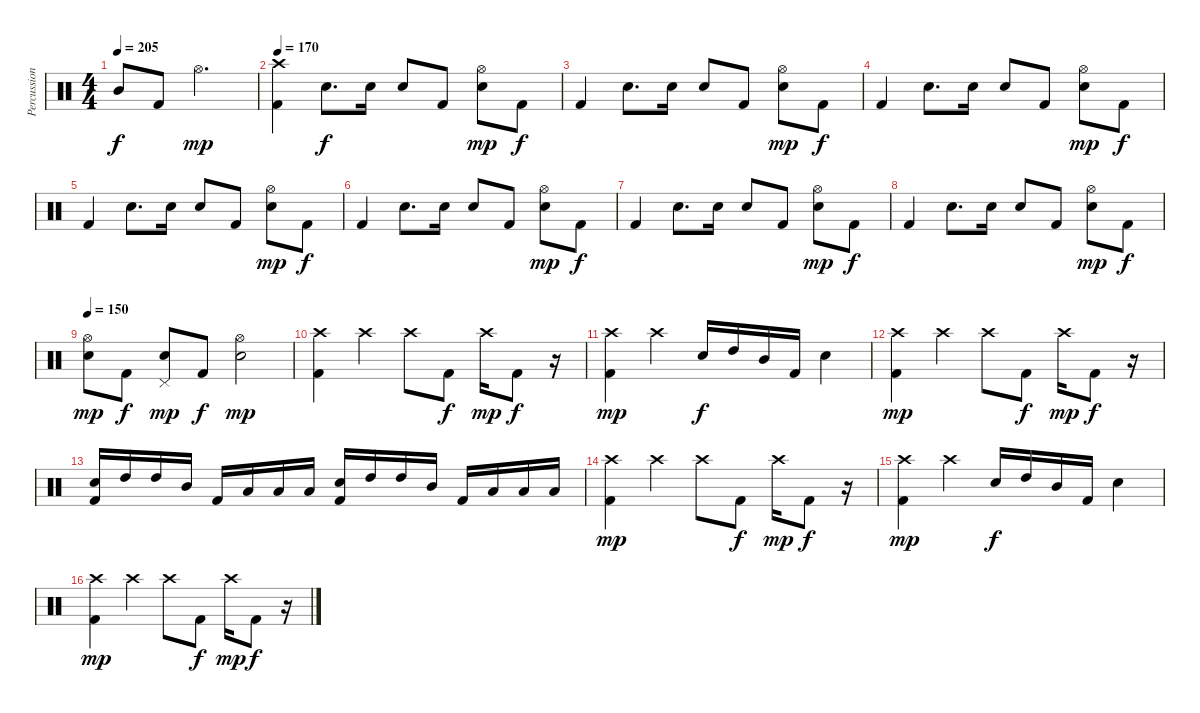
\track ("Percussion" "Percussion") {instrument percussion}
\staff {score}
\articulation defaults
\ts (4 4)
\tempo 205
\clef neutral
\ks c "Mid Tom (hit)".8{dy f} "Kick (hit) 2".8 "Hi-Hat (open)".2{d dy mp}
|
\tempo 170
("Crash high (hit)" "Kick (hit) 2").4 "Electric Snare (hit)".8{d dy f} "Electric Snare (hit)".16 "Electric Snare (hit)".8 "Kick (hit) 2".8 ("Hi-Hat (open)" "Electric Snare (hit)").8{dy mp} "Kick (hit) 2".8{dy f} |
"Kick (hit) 2".4 "Electric Snare (hit)".8{d} "Electric Snare (hit)".16 "Electric Snare (hit)".8 "Kick (hit) 2".8 ("Hi-Hat (open)" "Electric Snare (hit)").8{dy mp} "Kick (hit) 2".8{dy f} |
"Kick (hit) 2".4 "Electric Snare (hit)".8{d} "Electric Snare (hit)".16 "Electric Snare (hit)".8 "Kick (hit) 2".8 ("Hi-Hat (open)" "Electric Snare (hit)").8{dy mp} "Kick (hit) 2".8{dy f} |
"Kick (hit) 2".4 "Electric Snare (hit)".8{d} "Electric Snare (hit)".16 "Electric Snare (hit)".8 "Kick (hit) 2".8 ("Hi-Hat (open)" "Electric Snare (hit)").8{dy mp} "Kick (hit) 2".8{dy f} |
"Kick (hit) 2".4 "Electric Snare (hit)".8{d} "Electric Snare (hit)".16 "Electric Snare (hit)".8 "Kick (hit) 2".8 ("Hi-Hat (open)" "Electric Snare (hit)").8{dy mp} "Kick (hit) 2".8{dy f} |
"Kick (hit) 2".4 "Electric Snare (hit)".8{d} "Electric Snare (hit)".16 "Electric Snare (hit)".8 "Kick (hit) 2".8 ("Hi-Hat (open)" "Electric Snare (hit)").8{dy mp} "Kick (hit) 2".8{dy f} |
"Kick (hit) 2".4 "Electric Snare (hit)".8{d} "Electric Snare (hit)".16 "Electric Snare (hit)".8 "Kick (hit) 2".8 ("Hi-Hat (open)" "Electric Snare (hit)").8{dy mp} "Kick (hit) 2".8{dy f} |
\tempo 150
("Hi-Hat (open)" "Electric Snare (hit)").8{dy mp} "Kick (hit) 2".8{dy f} ("Pedal Hi-Hat (hit)" "Electric Snare (hit)").8{dy mp} "Kick (hit) 2".8{dy f} ("Hi-Hat (open)" "Electric Snare (hit)").2{dy mp} |
("Crash high (hit)" "Kick (hit) 2").4 "Crash high (hit)".4 "Crash high (hit)".8 "Kick (hit) 2".8{dy f} "Crash high (hit)".16{dy mp} "Kick (hit) 2".8{dy f} r.16 |
("Crash high (hit)" "Kick (hit) 2").4{dy mp} "Crash high (hit)".4 "Electric Snare (hit)".16{dy f} "High Tom (hit)".16 "Mid Tom (hit)".16 "Kick (hit) 2".16 "Electric Snare (hit)".4 |
("Crash high (hit)" "Kick (hit) 2").4{dy mp} "Crash high (hit)".4 "Crash high (hit)".8 "Kick (hit) 2".8{dy f} "Crash high (hit)".16{dy mp} "Kick (hit) 2".8{dy f} r.16 |
("Electric Snare (hit)" "Kick (hit) 2").16 "High Tom (hit)".16 "High Tom (hit)".16 "Mid Tom (hit)".16 "Kick (hit) 2".16 "Low Tom (hit)".16 "Low Tom (hit)".16 "Low Tom (hit)".16 ("Electric Snare (hit)" "Kick (hit) 2").16 "High Tom (hit)".16 "High Tom (hit)".16 "Mid Tom (hit)".16 "Kick (hit) 2".16 "Low Tom (hit)".16 "Low Tom (hit)".16 "Low Tom (hit)".16 |
("Crash high (hit)" "Kick (hit) 2").4{dy mp} "Crash high (hit)".4 "Crash high (hit)".8 "Kick (hit) 2".8{dy f} "Crash high (hit)".16{dy mp} "Kick (hit) 2".8{dy f} r.16 |
("Crash high (hit)" "Kick (hit) 2").4{dy mp} "Crash high (hit)".4 "Electric Snare (hit)".16{dy f} "High Tom (hit)".16 "Mid Tom (hit)".16 "Kick (hit) 2".16 "Electric Snare (hit)".4 |
("Crash high (hit)" "Kick (hit) 2").4{dy mp} "Crash high (hit)".4 "Crash high (hit)".8 "Kick (hit) 2".8{dy f} "Crash high (hit)".16{dy mp} "Kick (hit) 2".8{dy f} r.16
